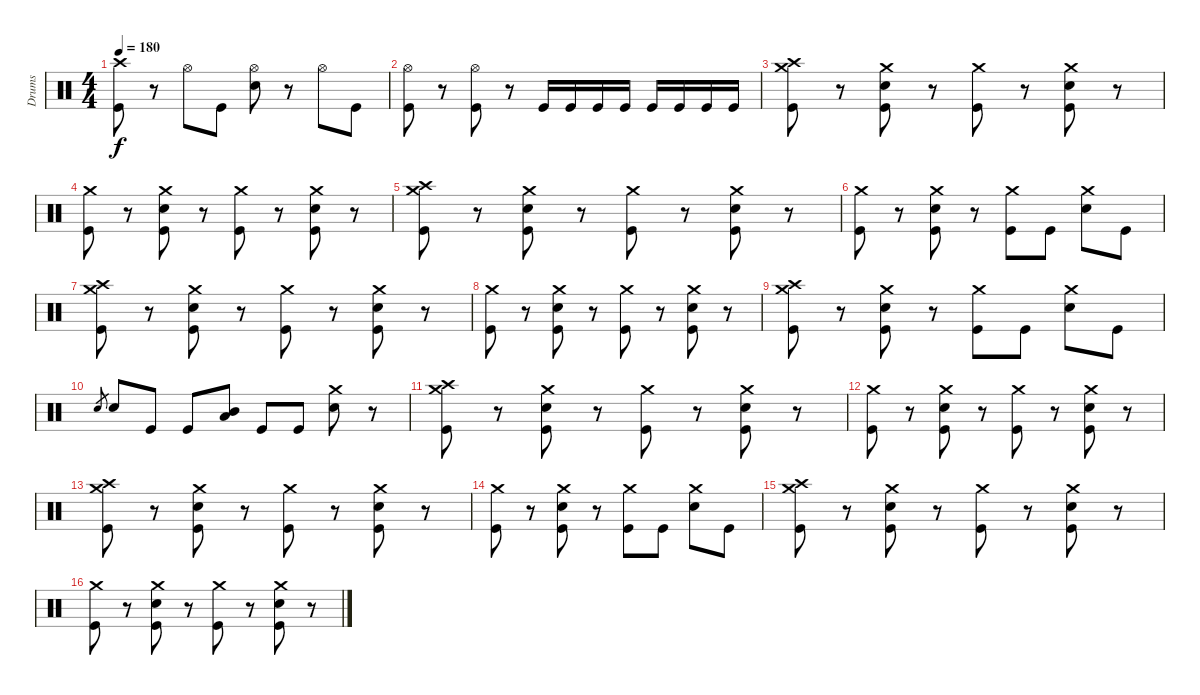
\track ("Drums" "Drums") {instrument percussion}
\staff {score}
\articulation defaults
\ts (4 4)
\tempo 180
\clef neutral
\ks c
("Crash high (hit)" "Kick (hit)").8{dy f} r.8 "Hi-Hat (open)".8 "Kick (hit)".8 ("Hi-Hat (open)" "Snare (hit) 2").8 r.8 "Hi-Hat (open)".8 "Kick (hit)".8 |
("Kick (hit)" "Hi-Hat (open)").8 r.8 ("Kick (hit)" "Hi-Hat (open)").8 r.8 "Kick (hit)".16 "Kick (hit)".16 "Kick (hit)".16 "Kick (hit)".16 "Kick (hit)".16 "Kick (hit)".16 "Kick (hit)".16 "Kick (hit)".16 |
("Crash high (hit)" "Crash medium (hit)" "Kick (hit)").8 r.8 ("Kick (hit)" "Snare (hit) 2" "Crash medium (hit)").8 r.8 ("Crash medium (hit)" "Kick (hit)").8 r.8 ("Crash medium (hit)" "Kick (hit)" "Snare (hit) 2").8 r.8 |
("Crash medium (hit)" "Kick (hit)").8 r.8 ("Kick (hit)" "Snare (hit) 2" "Crash medium (hit)").8 r.8 ("Crash medium (hit)" "Kick (hit)").8 r.8 ("Crash medium (hit)" "Kick (hit)" "Snare (hit) 2").8 r.8 |
("Crash high (hit)" "Crash medium (hit)" "Kick (hit)").8 r.8 ("Kick (hit)" "Snare (hit) 2" "Crash medium (hit)").8 r.8 ("Crash medium (hit)" "Kick (hit)").8 r.8 ("Crash medium (hit)" "Kick (hit)" "Snare (hit) 2").8 r.8 |
("Crash medium (hit)" "Kick (hit)").8 r.8 ("Kick (hit)" "Snare (hit) 2" "Crash medium (hit)").8 r.8 ("Crash medium (hit)" "Kick (hit)").8 "Kick (hit)".8 ("Crash medium (hit)" "Snare (hit) 2").8 "Kick (hit)".8 |
("Crash high (hit)" "Crash medium (hit)" "Kick (hit)").8 r.8 ("Kick (hit)" "Snare (hit) 2" "Crash medium (hit)").8 r.8 ("Crash medium (hit)" "Kick (hit)").8 r.8 ("Crash medium (hit)" "Kick (hit)" "Snare (hit) 2").8 r.8 |
("Crash medium (hit)" "Kick (hit)").8 r.8 ("Kick (hit)" "Snare (hit) 2" "Crash medium (hit)").8 r.8 ("Crash medium (hit)" "Kick (hit)").8 r.8 ("Crash medium (hit)" "Kick (hit)" "Snare (hit) 2").8 r.8 |
("Crash high (hit)" "Crash medium (hit)" "Kick (hit)").8 r.8 ("Kick (hit)" "Snare (hit) 2" "Crash medium (hit)").8 r.8 ("Crash medium (hit)" "Kick (hit)").8 "Kick (hit)".8 ("Crash medium (hit)" "Snare (hit) 2").8 "Kick (hit)".8 |
"Snare (hit) 2".8{gr} "Snare (hit) 2".8 "Kick (hit)".8 "Kick (hit)".8 ("Low Tom (hit)" "Mid Tom (hit)").8 "Kick (hit)".8 "Kick (hit)".8 ("Snare (hit) 2" "Crash medium (hit)").8 r.8 |
("Crash high (hit)" "Crash medium (hit)" "Kick (hit)").8 r.8 ("Kick (hit)" "Snare (hit) 2" "Crash medium (hit)").8 r.8 ("Crash medium (hit)" "Kick (hit)").8 r.8 ("Crash medium (hit)" "Kick (hit)" "Snare (hit) 2").8 r.8 |
("Crash medium (hit)" "Kick (hit)").8 r.8 ("Kick (hit)" "Snare (hit) 2" "Crash medium (hit)").8 r.8 ("Crash medium (hit)" "Kick (hit)").8 r.8 ("Crash medium (hit)" "Kick (hit)" "Snare (hit) 2").8 r.8 |
("Crash high (hit)" "Crash medium (hit)" "Kick (hit)").8 r.8 ("Kick (hit)" "Snare (hit) 2" "Crash medium (hit)").8 r.8 ("Crash medium (hit)" "Kick (hit)").8 r.8 ("Crash medium (hit)" "Kick (hit)" "Snare (hit) 2").8 r.8 |
("Crash medium (hit)" "Kick (hit)").8 r.8 ("Kick (hit)" "Snare (hit) 2" "Crash medium (hit)").8 r.8 ("Crash medium (hit)" "Kick (hit)").8 "Kick (hit)".8 ("Crash medium (hit)" "Snare (hit) 2").8 "Kick (hit)".8 |
("Crash high (hit)" "Crash medium (hit)" "Kick (hit)").8 r.8 ("Kick (hit)" "Snare (hit) 2" "Crash medium (hit)").8 r.8 ("Crash medium (hit)" "Kick (hit)").8 r.8 ("Crash medium (hit)" "Kick (hit)" "Snare (hit) 2").8 r.8 |
("Crash medium (hit)" "Kick (hit)").8 r.8 ("Kick (hit)" "Snare (hit) 2" "Crash medium (hit)").8 r.8 ("Crash medium (hit)" "Kick (hit)").8 r.8 ("Crash medium (hit)" "Kick (hit)" "Snare (hit) 2").8 r.8
